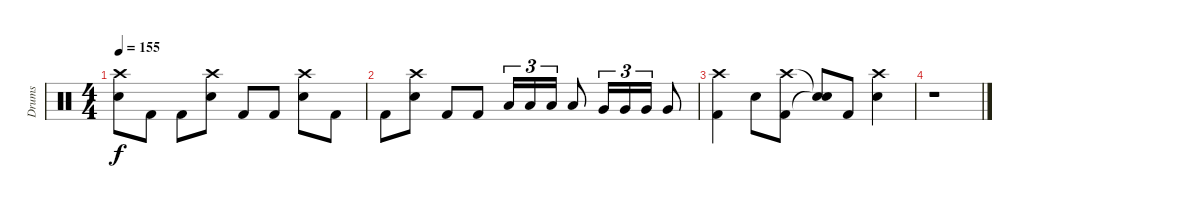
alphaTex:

\track ("Drums" "Drums") {instrument percussion}
\staff {score}
\articulation defaults
\ts (4 4)
\tempo 155
\clef neutral
\ks c
("Crash high (hit)" "Electric Snare (hit)").8{dy f} "Kick (hit) 2".8 "Kick (hit) 2".8 ("Crash high (hit)" "Electric Snare (hit)").8 "Kick (hit) 2".8 "Kick (hit) 2".8 ("Crash high (hit)" "Electric Snare (hit)").8 "Kick (hit) 2".8 |
"Kick (hit) 2".8 ("Crash high (hit)" "Electric Snare (hit)").8 "Kick (hit) 2".8 "Kick (hit) 2".8 "Low Tom (hit)".16{tu (3 2)} "Low Tom (hit)".16{tu (3 2)} "Low Tom (hit)".16{tu (3 2)} "Low Tom (hit)".8 "Very Low Tom (hit)".16{tu (3 2)} "Very Low Tom (hit)".16{tu (3 2)} "Very Low Tom (hit)".16{tu (3 2)} "Very Low Tom (hit)".8 |
("Crash high (hit)" "Kick (hit) 2").4 "Electric Snare (hit)".8 ("Crash high (hit)" "Kick (hit) 2").8 ("Snare (hit)"{t} "Snare (hit)"{t}).8 "Kick (hit) 2".8 ("Crash high (hit)" "Electric Snare (hit)").4 |
r.1
